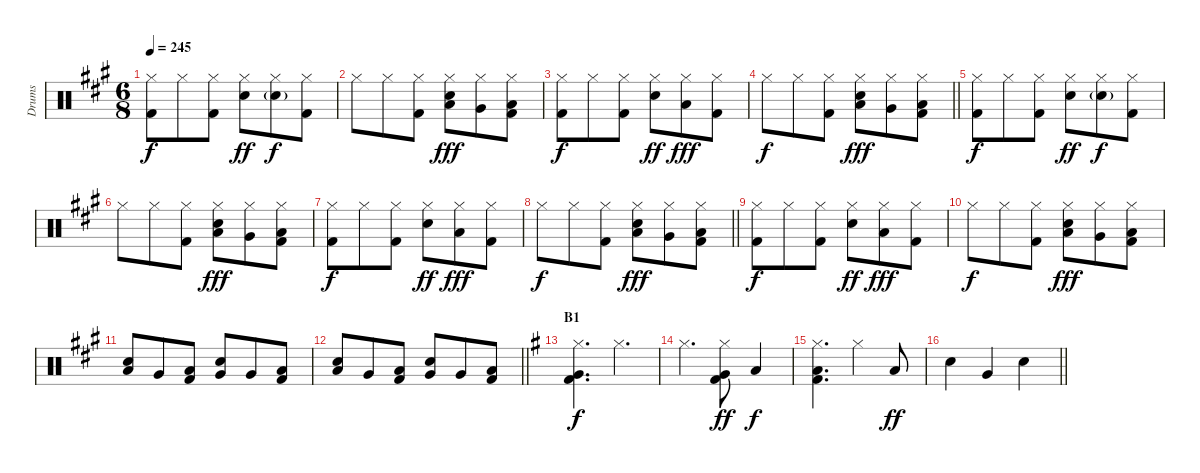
\track ("Drums" "Drums") {instrument percussion}
\staff {score}
\articulation defaults
\ts (6 8)
\section ("" "")
\tempo 245
\clef neutral
\ks a
("Hi-Hat (closed)" "Kick (hit) 2").8{dy f} "Hi-Hat (closed)".8 ("Hi-Hat (closed)" "Kick (hit) 2").8 ("Hi-Hat (closed)" "Electric Snare (hit)").8{dy ff} ("Hi-Hat (closed)" "Electric Snare (hit)"{g}).8{dy f} ("Hi-Hat (closed)" "Kick (hit) 2").8 |
"Hi-Hat (closed)".8 "Hi-Hat (closed)".8 ("Hi-Hat (closed)" "Kick (hit) 2").8 ("Hi-Hat (closed)" "Low Tom (hit)" "Electric Snare (hit)").8{dy fff} ("Hi-Hat (closed)" "Very Low Tom (hit)").8 ("Hi-Hat (closed)" "Low Floor Tom (hit)" "Kick (hit) 2").8 |
("Hi-Hat (closed)" "Kick (hit) 2").8{dy f} "Hi-Hat (closed)".8 ("Hi-Hat (closed)" "Kick (hit) 2").8 ("Hi-Hat (closed)" "Electric Snare (hit)").8{dy ff} ("Hi-Hat (closed)" "Low Tom (hit)").8{dy fff} ("Hi-Hat (closed)" "Kick (hit) 2").8 |
\barLineRight lightlight "Hi-Hat (closed)".8{dy f} "Hi-Hat (closed)".8
("Hi-Hat (closed)" "Kick (hit) 2").8 ("Hi-Hat (closed)" "Low Tom (hit)" "Electric Snare (hit)").8{dy fff} ("Hi-Hat (closed)" "Very Low Tom (hit)").8 ("Hi-Hat (closed)" "Low Floor Tom (hit)" "Kick (hit) 2").8 |
\section ("" "")
("Hi-Hat (closed)" "Kick (hit) 2").8{dy f} "Hi-Hat (closed)".8 ("Hi-Hat (closed)" "Kick (hit) 2").8 ("Hi-Hat (closed)" "Electric Snare (hit)").8{dy ff} ("Hi-Hat (closed)" "Electric Snare (hit)"{g}).8{dy f} ("Hi-Hat (closed)" "Kick (hit) 2").8 |
"Hi-Hat (closed)".8 "Hi-Hat (closed)".8 ("Hi-Hat (closed)" "Kick (hit) 2").8 ("Hi-Hat (closed)" "Low Tom (hit)" "Electric Snare (hit)").8{dy fff} ("Hi-Hat (closed)" "Very Low Tom (hit)").8 ("Hi-Hat (closed)" "Low Floor Tom (hit)" "Kick (hit) 2").8 |
("Hi-Hat (closed)" "Kick (hit) 2").8{dy f} "Hi-Hat (closed)".8 ("Hi-Hat (closed)" "Kick (hit) 2").8 ("Hi-Hat (closed)" "Electric Snare (hit)").8{dy ff} ("Hi-Hat (closed)" "Low Tom (hit)").8{dy fff} ("Hi-Hat (closed)" "Kick (hit) 2").8 |
\barLineRight lightlight "Hi-Hat (closed)".8{dy f} "Hi-Hat (closed)".8
("Hi-Hat (closed)" "Kick (hit) 2").8 ("Hi-Hat (closed)" "Low Tom (hit)" "Electric Snare (hit)").8{dy fff} ("Hi-Hat (closed)" "Very Low Tom (hit)").8 ("Hi-Hat (closed)" "Low Floor Tom (hit)" "Kick (hit) 2").8 |
\section ("" "")
("Hi-Hat (closed)" "Kick (hit) 2").8{dy f} "Hi-Hat (closed)".8 ("Hi-Hat (closed)" "Kick (hit) 2").8 ("Hi-Hat (closed)" "Electric Snare (hit)").8{dy ff} ("Hi-Hat (closed)" "Low Tom (hit)").8{dy fff} ("Hi-Hat (closed)" "Kick (hit) 2").8 |
"Hi-Hat (closed)".8{dy f} "Hi-Hat (closed)".8 ("Hi-Hat (closed)" "Kick (hit) 2").8 ("Hi-Hat (closed)" "Low Tom (hit)" "Electric Snare (hit)").8{dy fff} ("Hi-Hat (closed)" "Very Low Tom (hit)").8 ("Hi-Hat (closed)" "Low Floor Tom (hit)" "Kick (hit) 2").8 |
("Low Tom (hit)" "Electric Snare (hit)").8 "Very Low Tom (hit)".8 ("Low Floor Tom (hit)" "Kick (hit) 2").8 ("Very Low Tom (hit)" "Electric Snare (hit)").8 "Very Low Tom (hit)".8 ("Low Floor Tom (hit)" "Kick (hit) 2").8 |
\barLineRight lightlight
("Low Tom (hit)" "Electric Snare (hit)").8 "Very Low Tom (hit)".8 ("Low Floor Tom (hit)" "Kick (hit) 2").8 ("Very Low Tom (hit)" "Electric Snare (hit)").8 "Very Low Tom (hit)".8 ("Low Floor Tom (hit)" "Kick (hit) 2").8 |
\section ("" "B1")
\ks eminor
("Hi-Hat (closed)" "Very Low Tom (hit)" "Kick (hit) 2").4{d dy f} "Hi-Hat (closed)".4{d} |
"Hi-Hat (closed)".4{d} ("Hi-Hat (closed)" "Very Low Tom (hit)" "Kick (hit) 2").8{dy ff} "Low Floor Tom (hit)".4{dy f} |
("Hi-Hat (closed)" "Low Floor Tom (hit)" "Kick (hit) 2").4{d} "Hi-Hat (closed)".4 "Low Floor Tom (hit)".8{dy ff} |
\barLineRight lightlight "Electric Snare (hit)".4 "Very Low Tom (hit)".4 "Electric Snare (hit)".4
